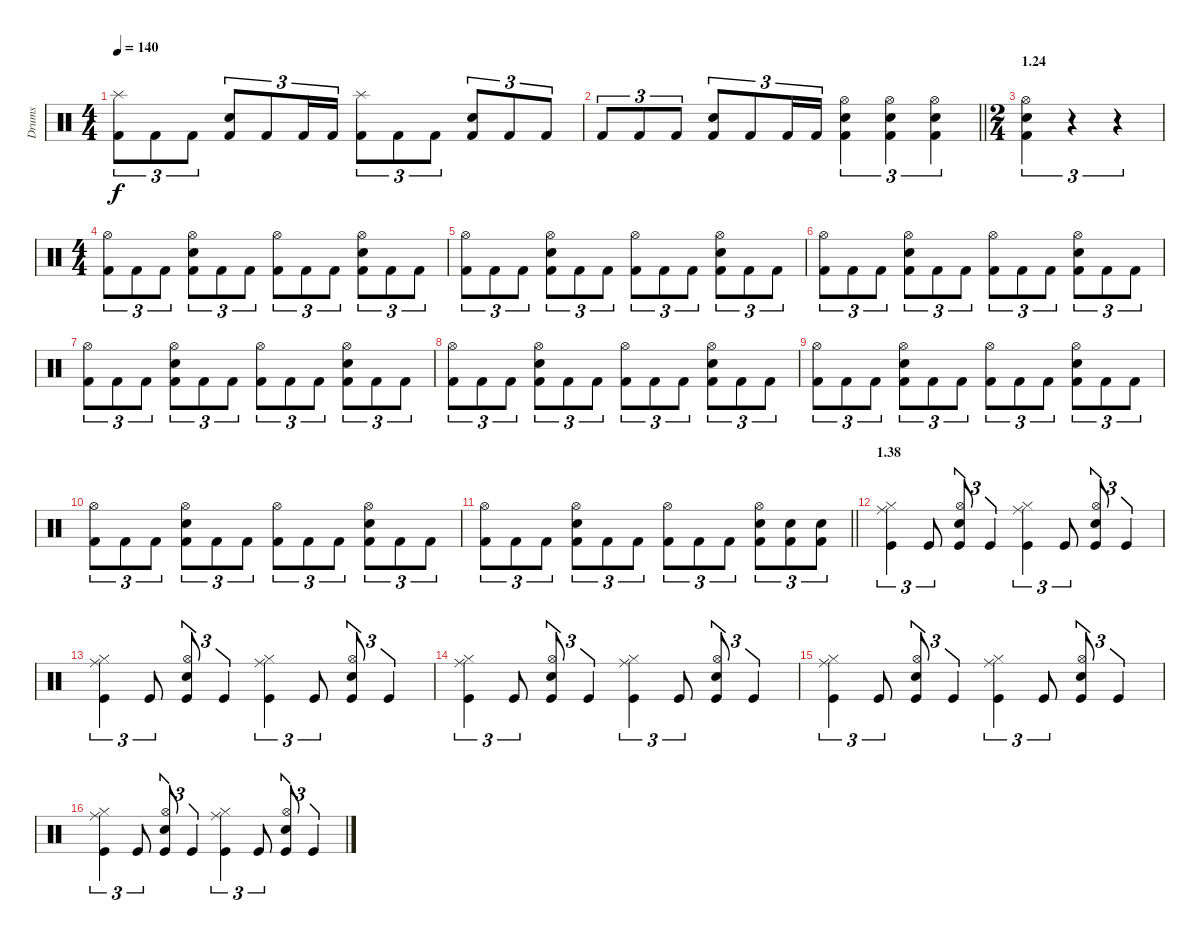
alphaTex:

\track ("Drums" "Drums") {instrument percussion}
\staff {score}
\articulation defaults
\ts (4 4)
\tempo 140
\clef neutral
\ks c
("Splash (hit)" "Kick (hit) 2").8{tu (3 2) dy f} "Kick (hit) 2".8{tu (3 2)} "Kick (hit) 2".8{tu (3 2)} ("Electric Snare (hit)" "Kick (hit) 2").8{tu (3 2)} "Kick (hit) 2".8{tu (3 2)} "Kick (hit) 2".16{tu (3 2)} "Kick (hit) 2".16{tu (3 2)} ("Splash (hit)" "Kick (hit) 2").8{tu (3 2)} "Kick (hit) 2".8{tu (3 2)} "Kick (hit) 2".8{tu (3 2)} ("Electric Snare (hit)" "Kick (hit) 2").8{tu (3 2)} "Kick (hit) 2".8{tu (3 2)} "Kick (hit) 2".8{tu (3 2)} |
\barLineRight lightlight "Kick (hit) 2".8{tu (3 2)} "Kick (hit) 2".8{tu (3 2)} "Kick (hit) 2".8{tu (3 2)}
("Electric Snare (hit)" "Kick (hit) 2").8{tu (3 2)} "Kick (hit) 2".8{tu (3 2)} "Kick (hit) 2".16{tu (3 2)} "Kick (hit) 2".16{tu (3 2)} ("Hi-Hat (open)" "Electric Snare (hit)" "Kick (hit) 2").4{tu (3 2)} ("Hi-Hat (open)" "Electric Snare (hit)" "Kick (hit) 2").4{tu (3 2)} ("Hi-Hat (open)" "Electric Snare (hit)" "Kick (hit) 2").4{tu (3 2)} |
\ts (2 4)
\section ("" "1.24")
("Hi-Hat (open)" "Electric Snare (hit)" "Kick (hit) 2").4{tu (3 2)} r.4{tu (3 2)} r.4{tu (3 2)} |
\ts (4 4)
("Hi-Hat (open)" "Kick (hit) 2").8{tu (3 2)} "Kick (hit) 2".8{tu (3 2)} "Kick (hit) 2".8{tu (3 2)} ("Hi-Hat (open)" "Electric Snare (hit)" "Kick (hit) 2").8{tu (3 2)} "Kick (hit) 2".8{tu (3 2)} "Kick (hit) 2".8{tu (3 2)} ("Hi-Hat (open)" "Kick (hit) 2").8{tu (3 2)} "Kick (hit) 2".8{tu (3 2)} "Kick (hit) 2".8{tu (3 2)} ("Hi-Hat (open)" "Electric Snare (hit)" "Kick (hit) 2").8{tu (3 2)} "Kick (hit) 2".8{tu (3 2)} "Kick (hit) 2".8{tu (3 2)} |
("Hi-Hat (open)" "Kick (hit) 2").8{tu (3 2)} "Kick (hit) 2".8{tu (3 2)} "Kick (hit) 2".8{tu (3 2)} ("Hi-Hat (open)" "Electric Snare (hit)" "Kick (hit) 2").8{tu (3 2)} "Kick (hit) 2".8{tu (3 2)} "Kick (hit) 2".8{tu (3 2)} ("Hi-Hat (open)" "Kick (hit) 2").8{tu (3 2)} "Kick (hit) 2".8{tu (3 2)} "Kick (hit) 2".8{tu (3 2)} ("Hi-Hat (open)" "Electric Snare (hit)" "Kick (hit) 2").8{tu (3 2)} "Kick (hit) 2".8{tu (3 2)} "Kick (hit) 2".8{tu (3 2)} |
("Hi-Hat (open)" "Kick (hit) 2").8{tu (3 2)} "Kick (hit) 2".8{tu (3 2)} "Kick (hit) 2".8{tu (3 2)} ("Hi-Hat (open)" "Electric Snare (hit)" "Kick (hit) 2").8{tu (3 2)} "Kick (hit) 2".8{tu (3 2)} "Kick (hit) 2".8{tu (3 2)} ("Hi-Hat (open)" "Kick (hit) 2").8{tu (3 2)} "Kick (hit) 2".8{tu (3 2)} "Kick (hit) 2".8{tu (3 2)} ("Hi-Hat (open)" "Electric Snare (hit)" "Kick (hit) 2").8{tu (3 2)} "Kick (hit) 2".8{tu (3 2)} "Kick (hit) 2".8{tu (3 2)} |
("Hi-Hat (open)" "Kick (hit) 2").8{tu (3 2)} "Kick (hit) 2".8{tu (3 2)} "Kick (hit) 2".8{tu (3 2)} ("Hi-Hat (open)" "Electric Snare (hit)" "Kick (hit) 2").8{tu (3 2)} "Kick (hit) 2".8{tu (3 2)} "Kick (hit) 2".8{tu (3 2)} ("Hi-Hat (open)" "Kick (hit) 2").8{tu (3 2)} "Kick (hit) 2".8{tu (3 2)} "Kick (hit) 2".8{tu (3 2)} ("Hi-Hat (open)" "Electric Snare (hit)" "Kick (hit) 2").8{tu (3 2)} "Kick (hit) 2".8{tu (3 2)} "Kick (hit) 2".8{tu (3 2)} |
("Hi-Hat (open)" "Kick (hit) 2").8{tu (3 2)} "Kick (hit) 2".8{tu (3 2)} "Kick (hit) 2".8{tu (3 2)} ("Hi-Hat (open)" "Electric Snare (hit)" "Kick (hit) 2").8{tu (3 2)} "Kick (hit) 2".8{tu (3 2)} "Kick (hit) 2".8{tu (3 2)} ("Hi-Hat (open)" "Kick (hit) 2").8{tu (3 2)} "Kick (hit) 2".8{tu (3 2)} "Kick (hit) 2".8{tu (3 2)} ("Hi-Hat (open)" "Electric Snare (hit)" "Kick (hit) 2").8{tu (3 2)} "Kick (hit) 2".8{tu (3 2)} "Kick (hit) 2".8{tu (3 2)} |
("Hi-Hat (open)" "Kick (hit) 2").8{tu (3 2)} "Kick (hit) 2".8{tu (3 2)} "Kick (hit) 2".8{tu (3 2)} ("Hi-Hat (open)" "Electric Snare (hit)" "Kick (hit) 2").8{tu (3 2)} "Kick (hit) 2".8{tu (3 2)} "Kick (hit) 2".8{tu (3 2)} ("Hi-Hat (open)" "Kick (hit) 2").8{tu (3 2)} "Kick (hit) 2".8{tu (3 2)} "Kick (hit) 2".8{tu (3 2)} ("Hi-Hat (open)" "Electric Snare (hit)" "Kick (hit) 2").8{tu (3 2)} "Kick (hit) 2".8{tu (3 2)} "Kick (hit) 2".8{tu (3 2)} |
("Hi-Hat (open)" "Kick (hit) 2").8{tu (3 2)} "Kick (hit) 2".8{tu (3 2)} "Kick (hit) 2".8{tu (3 2)} ("Hi-Hat (open)" "Electric Snare (hit)" "Kick (hit) 2").8{tu (3 2)} "Kick (hit) 2".8{tu (3 2)} "Kick (hit) 2".8{tu (3 2)} ("Hi-Hat (open)" "Kick (hit) 2").8{tu (3 2)} "Kick (hit) 2".8{tu (3 2)} "Kick (hit) 2".8{tu (3 2)} ("Hi-Hat (open)" "Electric Snare (hit)" "Kick (hit) 2").8{tu (3 2)} "Kick (hit) 2".8{tu (3 2)} "Kick (hit) 2".8{tu (3 2)} |
\barLineRight lightlight
("Hi-Hat (open)" "Kick (hit) 2").8{tu (3 2)} "Kick (hit) 2".8{tu (3 2)} "Kick (hit) 2".8{tu (3 2)} ("Hi-Hat (open)" "Electric Snare (hit)" "Kick (hit) 2").8{tu (3 2)} "Kick (hit) 2".8{tu (3 2)} "Kick (hit) 2".8{tu (3 2)} ("Hi-Hat (open)" "Kick (hit) 2").8{tu (3 2)} "Kick (hit) 2".8{tu (3 2)} "Kick (hit) 2".8{tu (3 2)} ("Hi-Hat (open)" "Electric Snare (hit)" "Kick (hit) 2").8{tu (3 2)} ("Electric Snare (hit)" "Kick (hit) 2").8{tu (3 2)} ("Electric Snare (hit)" "Kick (hit) 2").8{tu (3 2)} |
\section ("" "1.38")
("Hi-Hat (closed)" "Ride (middle)" "Kick (hit)").4{tu (3 2)} "Kick (hit)".8{tu (3 2)} ("Hi-Hat (open)" "Electric Snare (hit)" "Kick (hit)").8{tu (3 2)} "Kick (hit)".4{tu (3 2)} ("Hi-Hat (closed)" "Ride (middle)" "Kick (hit)").4{tu (3 2)} "Kick (hit)".8{tu (3 2)} ("Hi-Hat (open)" "Electric Snare (hit)" "Kick (hit)").8{tu (3 2)} "Kick (hit)".4{tu (3 2)} |
("Hi-Hat (closed)" "Ride (middle)" "Kick (hit)").4{tu (3 2)} "Kick (hit)".8{tu (3 2)} ("Hi-Hat (open)" "Electric Snare (hit)" "Kick (hit)").8{tu (3 2)} "Kick (hit)".4{tu (3 2)} ("Hi-Hat (closed)" "Ride (middle)" "Kick (hit)").4{tu (3 2)} "Kick (hit)".8{tu (3 2)} ("Hi-Hat (open)" "Electric Snare (hit)" "Kick (hit)").8{tu (3 2)} "Kick (hit)".4{tu (3 2)} |
("Hi-Hat (closed)" "Ride (middle)" "Kick (hit)").4{tu (3 2)} "Kick (hit)".8{tu (3 2)} ("Hi-Hat (open)" "Electric Snare (hit)" "Kick (hit)").8{tu (3 2)} "Kick (hit)".4{tu (3 2)} ("Hi-Hat (closed)" "Ride (middle)" "Kick (hit)").4{tu (3 2)} "Kick (hit)".8{tu (3 2)} ("Hi-Hat (open)" "Electric Snare (hit)" "Kick (hit)").8{tu (3 2)} "Kick (hit)".4{tu (3 2)} |
("Hi-Hat (closed)" "Ride (middle)" "Kick (hit)").4{tu (3 2)} "Kick (hit)".8{tu (3 2)} ("Hi-Hat (open)" "Electric Snare (hit)" "Kick (hit)").8{tu (3 2)} "Kick (hit)".4{tu (3 2)} ("Hi-Hat (closed)" "Ride (middle)" "Kick (hit)").4{tu (3 2)} "Kick (hit)".8{tu (3 2)} ("Hi-Hat (open)" "Electric Snare (hit)" "Kick (hit)").8{tu (3 2)} "Kick (hit)".4{tu (3 2)} |
("Hi-Hat (closed)" "Ride (middle)" "Kick (hit)").4{tu (3 2)} "Kick (hit)".8{tu (3 2)} ("Hi-Hat (open)" "Electric Snare (hit)" "Kick (hit)").8{tu (3 2)} "Kick (hit)".4{tu (3 2)} ("Hi-Hat (closed)" "Ride (middle)" "Kick (hit)").4{tu (3 2)} "Kick (hit)".8{tu (3 2)} ("Hi-Hat (open)" "Electric Snare (hit)" "Kick (hit)").8{tu (3 2)} "Kick (hit)".4{tu (3 2)}
